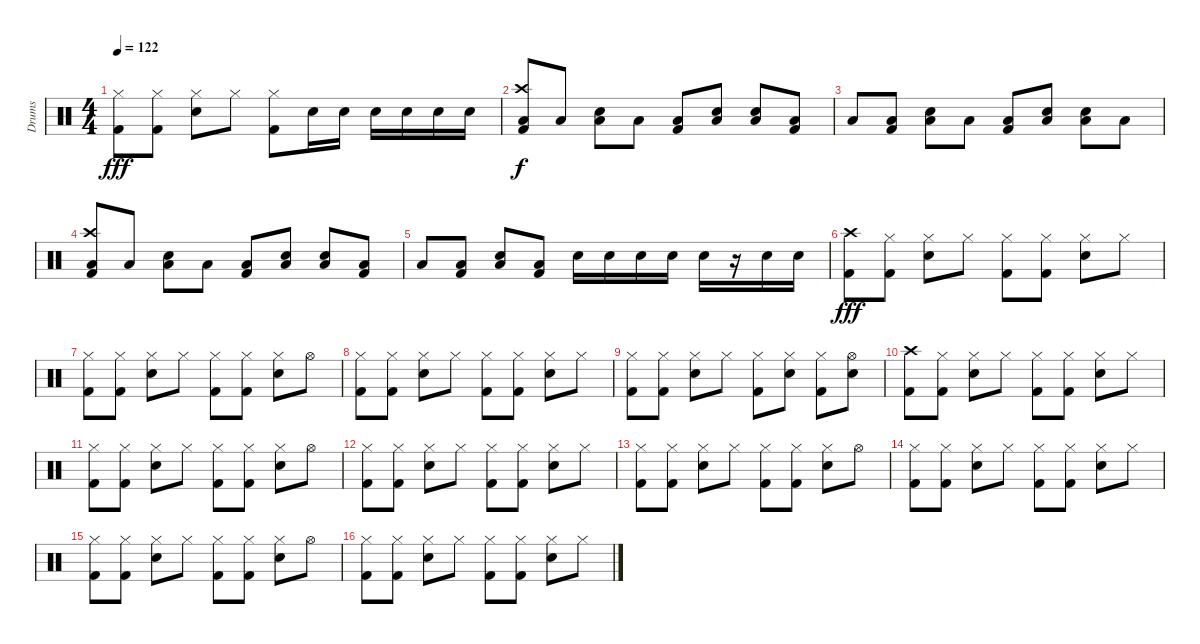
\track ("Drums" "Drums") {instrument percussion}
\staff {score}
\articulation defaults
\ts (4 4)
\tempo 122
\clef neutral
\ks c
("Hi-Hat (closed)" "Kick (hit) 2").8{dy fff} ("Hi-Hat (closed)" "Kick (hit) 2").8 ("Hi-Hat (closed)" "Snare (hit) 2").8 "Hi-Hat (closed)".8 ("Hi-Hat (closed)" "Kick (hit) 2").8 "Snare (hit) 2".16 "Snare (hit) 2".16 "Snare (hit) 2".16 "Snare (hit) 2".16 "Snare (hit) 2".16 "Snare (hit) 2".16 |
("Crash high (hit)" "Low Floor Tom (hit)" "Kick (hit) 2").8{dy f} "Low Floor Tom (hit)".8 ("Snare (hit) 2" "Low Floor Tom (hit)").8 "Low Floor Tom (hit)".8 ("Low Floor Tom (hit)" "Kick (hit) 2").8 ("Snare (hit) 2" "Low Floor Tom (hit)").8 ("Snare (hit) 2" "Low Floor Tom (hit)").8 ("Low Floor Tom (hit)" "Kick (hit) 2").8 |
"Low Floor Tom (hit)".8 ("Low Floor Tom (hit)" "Kick (hit) 2").8 ("Snare (hit) 2" "Low Floor Tom (hit)").8 "Low Floor Tom (hit)".8 ("Low Floor Tom (hit)" "Kick (hit) 2").8 ("Snare (hit) 2" "Low Floor Tom (hit)").8 ("Snare (hit) 2" "Low Floor Tom (hit)").8 "Low Floor Tom (hit)".8 |
("Crash high (hit)" "Low Floor Tom (hit)" "Kick (hit) 2").8 "Low Floor Tom (hit)".8 ("Snare (hit) 2" "Low Floor Tom (hit)").8 "Low Floor Tom (hit)".8 ("Low Floor Tom (hit)" "Kick (hit) 2").8 ("Snare (hit) 2" "Low Floor Tom (hit)").8 ("Snare (hit) 2" "Low Floor Tom (hit)").8 ("Low Floor Tom (hit)" "Kick (hit) 2").8 |
"Low Floor Tom (hit)".8 ("Low Floor Tom (hit)" "Kick (hit) 2").8 ("Snare (hit) 2" "Low Floor Tom (hit)").8 ("Low Floor Tom (hit)" "Kick (hit) 2").8 "Snare (hit) 2".16 "Snare (hit) 2".16 "Snare (hit) 2".16 "Snare (hit) 2".16 "Snare (hit) 2".16 r.16 "Snare (hit) 2".16 "Snare (hit) 2".16 |
("Crash high (hit)" "Kick (hit) 2").8{dy fff} ("Hi-Hat (closed)" "Kick (hit) 2").8 ("Hi-Hat (closed)" "Snare (hit) 2").8 "Hi-Hat (closed)".8 ("Hi-Hat (closed)" "Kick (hit) 2").8 ("Hi-Hat (closed)" "Kick (hit) 2").8 ("Hi-Hat (closed)" "Snare (hit) 2").8 "Hi-Hat (closed)".8 |
("Hi-Hat (closed)" "Kick (hit) 2").8 ("Hi-Hat (closed)" "Kick (hit) 2").8 ("Hi-Hat (closed)" "Snare (hit) 2").8 "Hi-Hat (closed)".8 ("Hi-Hat (closed)" "Kick (hit) 2").8 ("Hi-Hat (closed)" "Kick (hit) 2").8 ("Hi-Hat (closed)" "Snare (hit) 2").8 "Hi-Hat (open)".8 |
("Hi-Hat (closed)" "Kick (hit) 2").8 ("Hi-Hat (closed)" "Kick (hit) 2").8 ("Hi-Hat (closed)" "Snare (hit) 2").8 "Hi-Hat (closed)".8 ("Hi-Hat (closed)" "Kick (hit) 2").8 ("Hi-Hat (closed)" "Kick (hit) 2").8 ("Hi-Hat (closed)" "Snare (hit) 2").8 "Hi-Hat (closed)".8 |
("Hi-Hat (closed)" "Kick (hit) 2").8 ("Hi-Hat (closed)" "Kick (hit) 2").8 ("Hi-Hat (closed)" "Snare (hit) 2").8 "Hi-Hat (closed)".8 ("Hi-Hat (closed)" "Kick (hit) 2").8 ("Hi-Hat (closed)" "Snare (hit) 2").8 ("Hi-Hat (closed)" "Kick (hit) 2").8 ("Hi-Hat (open)" "Snare (hit) 2").8 |
("Crash high (hit)" "Kick (hit) 2").8 ("Hi-Hat (closed)" "Kick (hit) 2").8 ("Hi-Hat (closed)" "Snare (hit) 2").8 "Hi-Hat (closed)".8 ("Hi-Hat (closed)" "Kick (hit) 2").8 ("Hi-Hat (closed)" "Kick (hit) 2").8 ("Hi-Hat (closed)" "Snare (hit) 2").8 "Hi-Hat (closed)".8 |
("Hi-Hat (closed)" "Kick (hit) 2").8 ("Hi-Hat (closed)" "Kick (hit) 2").8 ("Hi-Hat (closed)" "Snare (hit) 2").8 "Hi-Hat (closed)".8 ("Hi-Hat (closed)" "Kick (hit) 2").8 ("Hi-Hat (closed)" "Kick (hit) 2").8 ("Hi-Hat (closed)" "Snare (hit) 2").8 "Hi-Hat (open)".8 |
("Hi-Hat (closed)" "Kick (hit) 2").8 ("Hi-Hat (closed)" "Kick (hit) 2").8 ("Hi-Hat (closed)" "Snare (hit) 2").8 "Hi-Hat (closed)".8 ("Hi-Hat (closed)" "Kick (hit) 2").8 ("Hi-Hat (closed)" "Kick (hit) 2").8 ("Hi-Hat (closed)" "Snare (hit) 2").8 "Hi-Hat (closed)".8 |
("Hi-Hat (closed)" "Kick (hit) 2").8 ("Hi-Hat (closed)" "Kick (hit) 2").8 ("Hi-Hat (closed)" "Snare (hit) 2").8 "Hi-Hat (closed)".8 ("Hi-Hat (closed)" "Kick (hit) 2").8 ("Hi-Hat (closed)" "Kick (hit) 2").8 ("Hi-Hat (closed)" "Snare (hit) 2").8 "Hi-Hat (open)".8 |
("Hi-Hat (closed)" "Kick (hit) 2").8 ("Hi-Hat (closed)" "Kick (hit) 2").8 ("Hi-Hat (closed)" "Snare (hit) 2").8 "Hi-Hat (closed)".8 ("Hi-Hat (closed)" "Kick (hit) 2").8 ("Hi-Hat (closed)" "Kick (hit) 2").8 ("Hi-Hat (closed)" "Snare (hit) 2").8 "Hi-Hat (closed)".8 |
("Hi-Hat (closed)" "Kick (hit) 2").8 ("Hi-Hat (closed)" "Kick (hit) 2").8 ("Hi-Hat (closed)" "Snare (hit) 2").8 "Hi-Hat (closed)".8 ("Hi-Hat (closed)" "Kick (hit) 2").8 ("Hi-Hat (closed)" "Kick (hit) 2").8 ("Hi-Hat (closed)" "Snare (hit) 2").8 "Hi-Hat (open)".8 |
("Hi-Hat (closed)" "Kick (hit) 2").8 ("Hi-Hat (closed)" "Kick (hit) 2").8 ("Hi-Hat (closed)" "Snare (hit) 2").8 "Hi-Hat (closed)".8 ("Hi-Hat (closed)" "Kick (hit) 2").8 ("Hi-Hat (closed)" "Kick (hit) 2").8 ("Hi-Hat (closed)" "Snare (hit) 2").8 "Hi-Hat (closed)".8
